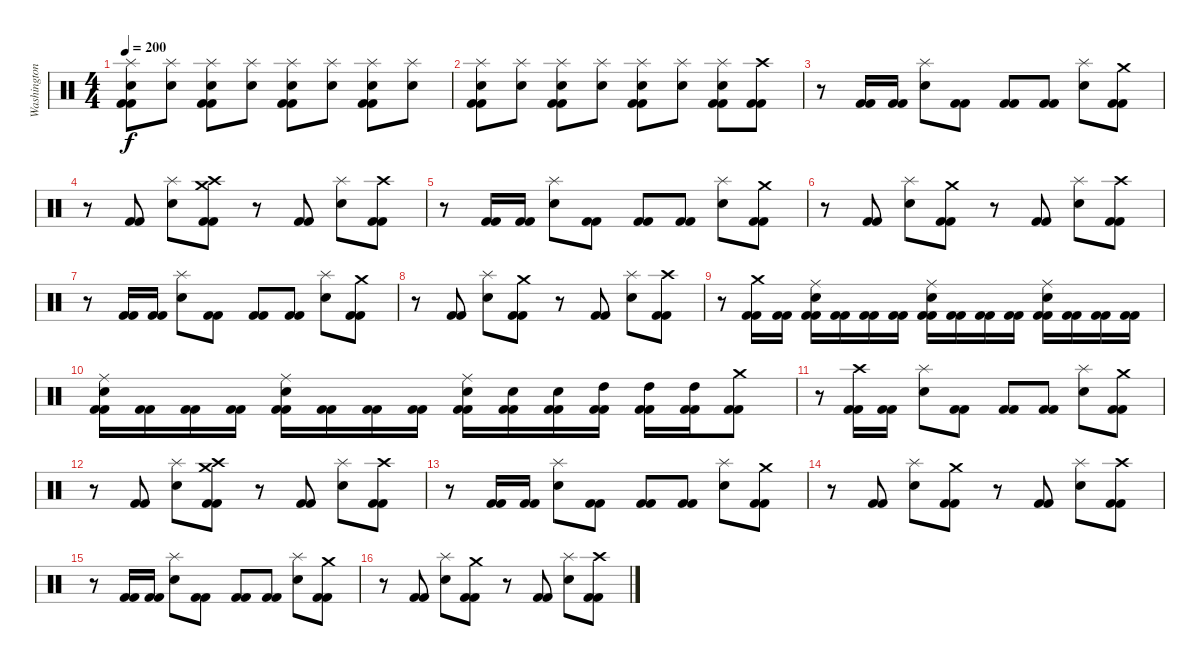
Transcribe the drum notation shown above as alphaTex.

\track ("Washington" "Washington") {instrument percussion}
\staff {score}
\articulation defaults
\ts (4 4)
\tempo 200
\clef neutral
\ks c
("Splash (hit)" "Electric Snare (hit)" "Kick (hit) 2" "Kick (hit) 2").8{dy f} ("Splash (hit)" "Electric Snare (hit)").8 ("Splash (hit)" "Electric Snare (hit)" "Kick (hit) 2" "Kick (hit) 2").8 ("Splash (hit)" "Electric Snare (hit)").8 ("Splash (hit)" "Electric Snare (hit)" "Kick (hit) 2" "Kick (hit) 2").8 ("Splash (hit)" "Electric Snare (hit)").8 ("Splash (hit)" "Electric Snare (hit)" "Kick (hit) 2" "Kick (hit) 2").8 ("Splash (hit)" "Electric Snare (hit)").8 |
("Splash (hit)" "Electric Snare (hit)" "Kick (hit) 2" "Kick (hit) 2").8 ("Splash (hit)" "Electric Snare (hit)").8 ("Splash (hit)" "Electric Snare (hit)" "Kick (hit) 2" "Kick (hit) 2").8 ("Splash (hit)" "Electric Snare (hit)").8 ("Splash (hit)" "Electric Snare (hit)" "Kick (hit) 2" "Kick (hit) 2").8 ("Splash (hit)" "Electric Snare (hit)").8 ("Splash (hit)" "Electric Snare (hit)" "Kick (hit) 2" "Kick (hit) 2").8 ("Crash high (hit)" "Kick (hit) 2" "Kick (hit) 2").8 |
r.8 ("Kick (hit) 2" "Kick (hit) 2").16 ("Kick (hit) 2" "Kick (hit) 2").16 ("Splash (hit)" "Electric Snare (hit)").8 ("Kick (hit) 2" "Kick (hit) 2").8 ("Kick (hit) 2" "Kick (hit) 2").8 ("Kick (hit) 2" "Kick (hit) 2").8 ("Splash (hit)" "Electric Snare (hit)").8 ("Crash medium (hit)" "Kick (hit) 2" "Kick (hit) 2").8 |
r.8 ("Kick (hit) 2" "Kick (hit) 2").8 ("Splash (hit)" "Electric Snare (hit)").8 ("Crash high (hit)" "Crash medium (hit)" "Kick (hit) 2" "Kick (hit) 2").8 r.8 ("Kick (hit) 2" "Kick (hit) 2").8 ("Splash (hit)" "Electric Snare (hit)").8 ("Crash high (hit)" "Kick (hit) 2" "Kick (hit) 2").8 |
r.8 ("Kick (hit) 2" "Kick (hit) 2").16 ("Kick (hit) 2" "Kick (hit) 2").16 ("Splash (hit)" "Electric Snare (hit)").8 ("Kick (hit) 2" "Kick (hit) 2").8 ("Kick (hit) 2" "Kick (hit) 2").8 ("Kick (hit) 2" "Kick (hit) 2").8 ("Splash (hit)" "Electric Snare (hit)").8 ("Crash medium (hit)" "Kick (hit) 2" "Kick (hit) 2").8 |
r.8 ("Kick (hit) 2" "Kick (hit) 2").8 ("Splash (hit)" "Electric Snare (hit)").8 ("Crash medium (hit)" "Kick (hit) 2" "Kick (hit) 2").8 r.8 ("Kick (hit) 2" "Kick (hit) 2").8 ("Splash (hit)" "Electric Snare (hit)").8 ("Crash high (hit)" "Kick (hit) 2" "Kick (hit) 2").8 |
r.8 ("Kick (hit) 2" "Kick (hit) 2").16 ("Kick (hit) 2" "Kick (hit) 2").16 ("Splash (hit)" "Electric Snare (hit)").8 ("Kick (hit) 2" "Kick (hit) 2").8 ("Kick (hit) 2" "Kick (hit) 2").8 ("Kick (hit) 2" "Kick (hit) 2").8 ("Splash (hit)" "Electric Snare (hit)").8 ("Crash medium (hit)" "Kick (hit) 2" "Kick (hit) 2").8 |
r.8 ("Kick (hit) 2" "Kick (hit) 2").8 ("Splash (hit)" "Electric Snare (hit)").8 ("Crash medium (hit)" "Kick (hit) 2" "Kick (hit) 2").8 r.8 ("Kick (hit) 2" "Kick (hit) 2").8 ("Splash (hit)" "Electric Snare (hit)").8 ("Crash high (hit)" "Kick (hit) 2" "Kick (hit) 2").8 |
r.8 ("Crash medium (hit)" "Kick (hit) 2" "Kick (hit) 2").16 ("Kick (hit) 2" "Kick (hit) 2").16 ("Ride (middle)" "Electric Snare (hit)" "Kick (hit) 2" "Kick (hit) 2").16 ("Kick (hit) 2" "Kick (hit) 2").16 ("Kick (hit) 2" "Kick (hit) 2").16 ("Kick (hit) 2" "Kick (hit) 2").16 ("Ride (middle)" "Electric Snare (hit)" "Kick (hit) 2" "Kick (hit) 2").16 ("Kick (hit) 2" "Kick (hit) 2").16 ("Kick (hit) 2" "Kick (hit) 2").16 ("Kick (hit) 2" "Kick (hit) 2").16 ("Ride (middle)" "Electric Snare (hit)" "Kick (hit) 2" "Kick (hit) 2").16 ("Kick (hit) 2" "Kick (hit) 2").16 ("Kick (hit) 2" "Kick (hit) 2").16 ("Kick (hit) 2" "Kick (hit) 2").16 |
("Ride (middle)" "Electric Snare (hit)" "Kick (hit) 2" "Kick (hit) 2").16 ("Kick (hit) 2" "Kick (hit) 2").16 ("Kick (hit) 2" "Kick (hit) 2").16 ("Kick (hit) 2" "Kick (hit) 2").16 ("Ride (middle)" "Electric Snare (hit)" "Kick (hit) 2" "Kick (hit) 2").16 ("Kick (hit) 2" "Kick (hit) 2").16 ("Kick (hit) 2" "Kick (hit) 2").16 ("Kick (hit) 2" "Kick (hit) 2").16 ("Ride (middle)" "Electric Snare (hit)" "Kick (hit) 2" "Kick (hit) 2").16 ("Electric Snare (hit)" "Kick (hit) 2" "Kick (hit) 2").16 ("Electric Snare (hit)" "Kick (hit) 2" "Kick (hit) 2").16 ("High Tom (hit)" "Kick (hit) 2" "Kick (hit) 2").16 ("High Tom (hit)" "Kick (hit) 2" "Kick (hit) 2").16 ("High Tom (hit)" "Kick (hit) 2" "Kick (hit) 2").16 ("Crash medium (hit)" "Kick (hit) 2" "Kick (hit) 2").8 |
r.8 ("Crash high (hit)" "Kick (hit) 2" "Kick (hit) 2").16 ("Kick (hit) 2" "Kick (hit) 2").16 ("Splash (hit)" "Electric Snare (hit)").8 ("Kick (hit) 2" "Kick (hit) 2").8 ("Kick (hit) 2" "Kick (hit) 2").8 ("Kick (hit) 2" "Kick (hit) 2").8 ("Splash (hit)" "Electric Snare (hit)").8 ("Crash medium (hit)" "Kick (hit) 2" "Kick (hit) 2").8 |
r.8 ("Kick (hit) 2" "Kick (hit) 2").8 ("Splash (hit)" "Electric Snare (hit)").8 ("Crash high (hit)" "Crash medium (hit)" "Kick (hit) 2" "Kick (hit) 2").8 r.8 ("Kick (hit) 2" "Kick (hit) 2").8 ("Splash (hit)" "Electric Snare (hit)").8 ("Crash high (hit)" "Kick (hit) 2" "Kick (hit) 2").8 |
r.8 ("Kick (hit) 2" "Kick (hit) 2").16 ("Kick (hit) 2" "Kick (hit) 2").16 ("Splash (hit)" "Electric Snare (hit)").8 ("Kick (hit) 2" "Kick (hit) 2").8 ("Kick (hit) 2" "Kick (hit) 2").8 ("Kick (hit) 2" "Kick (hit) 2").8 ("Splash (hit)" "Electric Snare (hit)").8 ("Crash medium (hit)" "Kick (hit) 2" "Kick (hit) 2").8 |
r.8 ("Kick (hit) 2" "Kick (hit) 2").8 ("Splash (hit)" "Electric Snare (hit)").8 ("Crash medium (hit)" "Kick (hit) 2" "Kick (hit) 2").8 r.8 ("Kick (hit) 2" "Kick (hit) 2").8 ("Splash (hit)" "Electric Snare (hit)").8 ("Crash high (hit)" "Kick (hit) 2" "Kick (hit) 2").8 |
r.8 ("Kick (hit) 2" "Kick (hit) 2").16 ("Kick (hit) 2" "Kick (hit) 2").16 ("Splash (hit)" "Electric Snare (hit)").8 ("Kick (hit) 2" "Kick (hit) 2").8 ("Kick (hit) 2" "Kick (hit) 2").8 ("Kick (hit) 2" "Kick (hit) 2").8 ("Splash (hit)" "Electric Snare (hit)").8 ("Crash medium (hit)" "Kick (hit) 2" "Kick (hit) 2").8 |
r.8 ("Kick (hit) 2" "Kick (hit) 2").8 ("Splash (hit)" "Electric Snare (hit)").8 ("Crash medium (hit)" "Kick (hit) 2" "Kick (hit) 2").8 r.8 ("Kick (hit) 2" "Kick (hit) 2").8 ("Splash (hit)" "Electric Snare (hit)").8 ("Crash high (hit)" "Kick (hit) 2" "Kick (hit) 2").8
